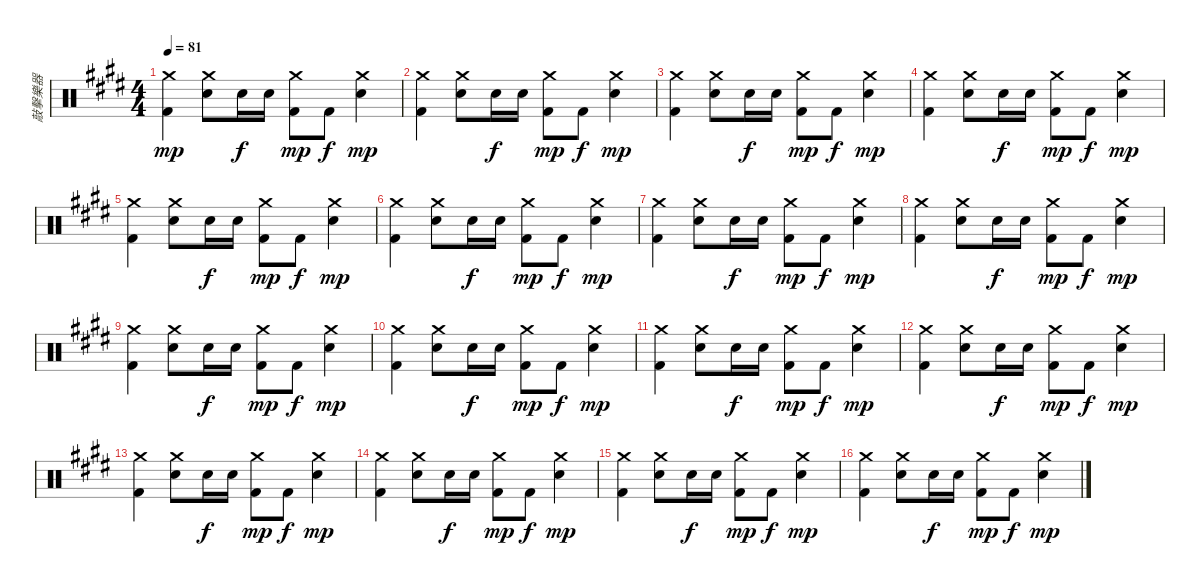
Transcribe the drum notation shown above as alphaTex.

\track ("敲擊樂器" "敲擊樂器") {instrument percussion}
\staff {score}
\articulation defaults
\ts (4 4)
\tempo 81
\clef neutral
\ks e
("Crash medium (hit)" "Kick (hit) 2").4{dy mp} ("Crash medium (hit)" "Electric Snare (hit)").8 "Snare (hit) 2".16{dy f} "Electric Snare (hit)".16 ("Crash medium (hit)" "Kick (hit) 2").8{dy mp} "Kick (hit) 2".8{dy f} ("Crash medium (hit)" "Electric Snare (hit)").4{dy mp} |
("Crash medium (hit)" "Kick (hit) 2").4 ("Crash medium (hit)" "Electric Snare (hit)").8 "Snare (hit) 2".16{dy f} "Electric Snare (hit)".16 ("Crash medium (hit)" "Kick (hit) 2").8{dy mp} "Kick (hit) 2".8{dy f} ("Crash medium (hit)" "Electric Snare (hit)").4{dy mp} |
("Crash medium (hit)" "Kick (hit) 2").4 ("Crash medium (hit)" "Electric Snare (hit)").8 "Snare (hit) 2".16{dy f} "Electric Snare (hit)".16 ("Crash medium (hit)" "Kick (hit) 2").8{dy mp} "Kick (hit) 2".8{dy f} ("Crash medium (hit)" "Electric Snare (hit)").4{dy mp} |
("Crash medium (hit)" "Kick (hit) 2").4 ("Crash medium (hit)" "Electric Snare (hit)").8 "Snare (hit) 2".16{dy f} "Electric Snare (hit)".16 ("Crash medium (hit)" "Kick (hit) 2").8{dy mp} "Kick (hit) 2".8{dy f} ("Crash medium (hit)" "Electric Snare (hit)").4{dy mp} |
("Crash medium (hit)" "Kick (hit) 2").4 ("Crash medium (hit)" "Electric Snare (hit)").8 "Snare (hit) 2".16{dy f} "Electric Snare (hit)".16 ("Crash medium (hit)" "Kick (hit) 2").8{dy mp} "Kick (hit) 2".8{dy f} ("Crash medium (hit)" "Electric Snare (hit)").4{dy mp} |
("Crash medium (hit)" "Kick (hit) 2").4 ("Crash medium (hit)" "Electric Snare (hit)").8 "Snare (hit) 2".16{dy f} "Electric Snare (hit)".16 ("Crash medium (hit)" "Kick (hit) 2").8{dy mp} "Kick (hit) 2".8{dy f} ("Crash medium (hit)" "Electric Snare (hit)").4{dy mp} |
("Crash medium (hit)" "Kick (hit) 2").4 ("Crash medium (hit)" "Electric Snare (hit)").8 "Snare (hit) 2".16{dy f} "Electric Snare (hit)".16 ("Crash medium (hit)" "Kick (hit) 2").8{dy mp} "Kick (hit) 2".8{dy f} ("Crash medium (hit)" "Electric Snare (hit)").4{dy mp} |
("Crash medium (hit)" "Kick (hit) 2").4 ("Crash medium (hit)" "Electric Snare (hit)").8 "Snare (hit) 2".16{dy f} "Electric Snare (hit)".16 ("Crash medium (hit)" "Kick (hit) 2").8{dy mp} "Kick (hit) 2".8{dy f} ("Crash medium (hit)" "Electric Snare (hit)").4{dy mp} |
("Crash medium (hit)" "Kick (hit) 2").4 ("Crash medium (hit)" "Electric Snare (hit)").8 "Snare (hit) 2".16{dy f} "Electric Snare (hit)".16 ("Crash medium (hit)" "Kick (hit) 2").8{dy mp} "Kick (hit) 2".8{dy f} ("Crash medium (hit)" "Electric Snare (hit)").4{dy mp} |
("Crash medium (hit)" "Kick (hit) 2").4 ("Crash medium (hit)" "Electric Snare (hit)").8 "Snare (hit) 2".16{dy f} "Electric Snare (hit)".16 ("Crash medium (hit)" "Kick (hit) 2").8{dy mp} "Kick (hit) 2".8{dy f} ("Crash medium (hit)" "Electric Snare (hit)").4{dy mp} |
("Crash medium (hit)" "Kick (hit) 2").4 ("Crash medium (hit)" "Electric Snare (hit)").8 "Snare (hit) 2".16{dy f} "Electric Snare (hit)".16 ("Crash medium (hit)" "Kick (hit) 2").8{dy mp} "Kick (hit) 2".8{dy f} ("Crash medium (hit)" "Electric Snare (hit)").4{dy mp} |
("Crash medium (hit)" "Kick (hit) 2").4 ("Crash medium (hit)" "Electric Snare (hit)").8 "Snare (hit) 2".16{dy f} "Electric Snare (hit)".16 ("Crash medium (hit)" "Kick (hit) 2").8{dy mp} "Kick (hit) 2".8{dy f} ("Crash medium (hit)" "Electric Snare (hit)").4{dy mp} |
("Crash medium (hit)" "Kick (hit) 2").4 ("Crash medium (hit)" "Electric Snare (hit)").8 "Snare (hit) 2".16{dy f} "Electric Snare (hit)".16 ("Crash medium (hit)" "Kick (hit) 2").8{dy mp} "Kick (hit) 2".8{dy f} ("Crash medium (hit)" "Electric Snare (hit)").4{dy mp} |
("Crash medium (hit)" "Kick (hit) 2").4 ("Crash medium (hit)" "Electric Snare (hit)").8 "Snare (hit) 2".16{dy f} "Electric Snare (hit)".16 ("Crash medium (hit)" "Kick (hit) 2").8{dy mp} "Kick (hit) 2".8{dy f} ("Crash medium (hit)" "Electric Snare (hit)").4{dy mp} |
("Crash medium (hit)" "Kick (hit) 2").4 ("Crash medium (hit)" "Electric Snare (hit)").8 "Snare (hit) 2".16{dy f} "Electric Snare (hit)".16 ("Crash medium (hit)" "Kick (hit) 2").8{dy mp} "Kick (hit) 2".8{dy f} ("Crash medium (hit)" "Electric Snare (hit)").4{dy mp} |
("Crash medium (hit)" "Kick (hit) 2").4 ("Crash medium (hit)" "Electric Snare (hit)").8 "Snare (hit) 2".16{dy f} "Electric Snare (hit)".16 ("Crash medium (hit)" "Kick (hit) 2").8{dy mp} "Kick (hit) 2".8{dy f} ("Crash medium (hit)" "Electric Snare (hit)").4{dy mp}
